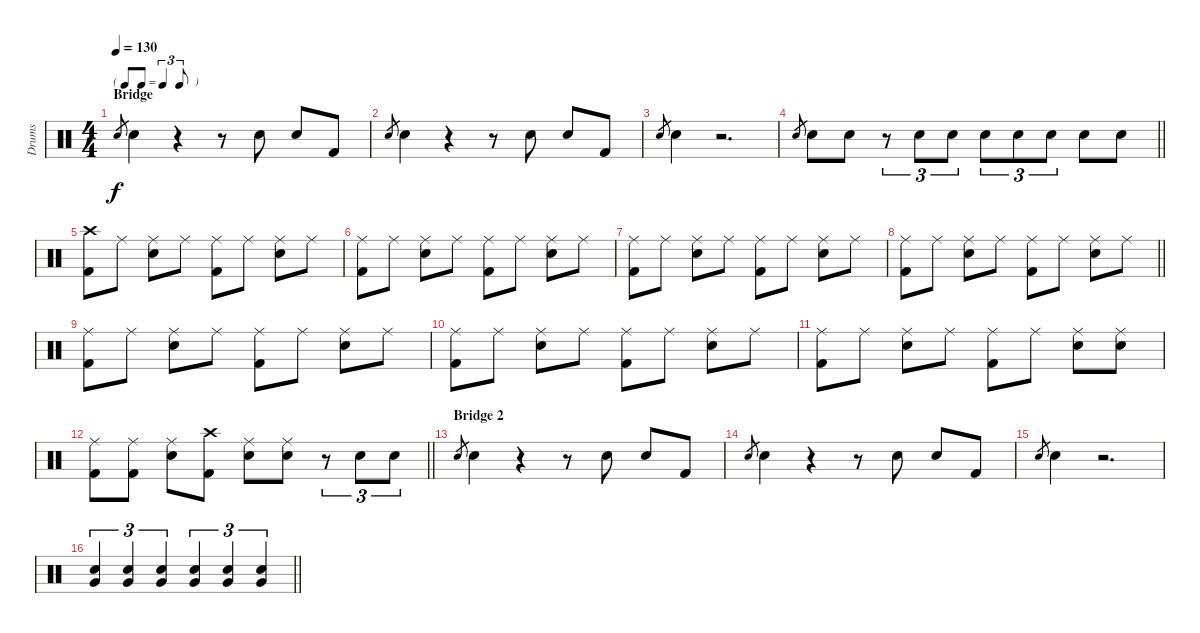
\track ("Drums" "Drums") {instrument percussion}
\staff {score}
\articulation defaults
\ts (4 4)
\tf triplet8th
\section ("" "Bridge")
\tempo 130
\clef neutral
\ks c "Snare (hit) 2".8{gr dy f} "Snare (hit) 2".4
r.4 r.8 "Snare (hit) 2".8 "Snare (hit) 2".8 "Kick (hit) 2".8 |
"Snare (hit) 2".8{gr} "Snare (hit) 2".4 r.4 r.8 "Snare (hit) 2".8 "Snare (hit) 2".8 "Kick (hit) 2".8 |
"Snare (hit) 2".8{gr} "Snare (hit) 2".4 r.2{d} |
\barLineRight lightlight "Snare (hit) 2".8{gr} "Snare (hit) 2".8 "Snare (hit) 2".8
r.8{tu (3 2)} "Snare (hit) 2".8{tu (3 2)} "Snare (hit) 2".8{tu (3 2)} "Snare (hit) 2".8{tu (3 2)} "Snare (hit) 2".8{tu (3 2)} "Snare (hit) 2".8{tu (3 2)} "Snare (hit) 2".8 "Snare (hit) 2".8 |
("Crash high (hit)" "Kick (hit) 2").8 "Ride (middle)".8 ("Ride (middle)" "Snare (hit) 2").8 "Ride (middle)".8 ("Ride (middle)" "Kick (hit) 2").8 "Ride (middle)".8 ("Ride (middle)" "Snare (hit) 2").8 "Ride (middle)".8 |
("Ride (middle)" "Kick (hit) 2").8 "Ride (middle)".8 ("Ride (middle)" "Snare (hit) 2").8 "Ride (middle)".8 ("Ride (middle)" "Kick (hit) 2").8 "Ride (middle)".8 ("Ride (middle)" "Snare (hit) 2").8 "Ride (middle)".8 |
("Ride (middle)" "Kick (hit) 2").8 "Ride (middle)".8 ("Ride (middle)" "Snare (hit) 2").8 "Ride (middle)".8 ("Ride (middle)" "Kick (hit) 2").8 "Ride (middle)".8 ("Ride (middle)" "Snare (hit) 2").8 "Ride (middle)".8 |
\barLineRight lightlight
("Ride (middle)" "Kick (hit) 2").8 "Ride (middle)".8 ("Ride (middle)" "Snare (hit) 2").8 "Ride (middle)".8 ("Ride (middle)" "Kick (hit) 2").8 "Ride (middle)".8 ("Ride (middle)" "Snare (hit) 2").8 "Ride (middle)".8 |
("Ride (middle)" "Kick (hit) 2").8 "Ride (middle)".8 ("Ride (middle)" "Snare (hit) 2").8 "Ride (middle)".8 ("Ride (middle)" "Kick (hit) 2").8 "Ride (middle)".8 ("Ride (middle)" "Snare (hit) 2").8 "Ride (middle)".8 |
("Ride (middle)" "Kick (hit) 2").8 "Ride (middle)".8 ("Ride (middle)" "Snare (hit) 2").8 "Ride (middle)".8 ("Ride (middle)" "Kick (hit) 2").8 "Ride (middle)".8 ("Ride (middle)" "Snare (hit) 2").8 "Ride (middle)".8 |
("Ride (middle)" "Kick (hit) 2").8 "Ride (middle)".8 ("Ride (middle)" "Snare (hit) 2").8 "Ride (middle)".8 ("Ride (middle)" "Kick (hit) 2").8 "Ride (middle)".8 ("Ride (middle)" "Snare (hit) 2").8 ("Ride (middle)" "Snare (hit) 2").8 |
\barLineRight lightlight
("Ride (middle)" "Kick (hit) 2").8 ("Ride (middle)" "Kick (hit) 2").8 ("Ride (middle)" "Snare (hit) 2").8 ("Crash high (hit)" "Kick (hit) 2").8 ("Ride (middle)" "Snare (hit) 2").8 ("Ride (middle)" "Snare (hit) 2").8 r.8{tu (3 2)} "Snare (hit) 2".8{tu (3 2)} "Snare (hit) 2".8{tu (3 2)} |
\section ("" "Bridge 2")
"Snare (hit) 2".8{gr} "Snare (hit) 2".4 r.4 r.8 "Snare (hit) 2".8 "Snare (hit) 2".8 "Kick (hit) 2".8 |
"Snare (hit) 2".8{gr} "Snare (hit) 2".4 r.4 r.8 "Snare (hit) 2".8 "Snare (hit) 2".8 "Kick (hit) 2".8 |
"Snare (hit) 2".8{gr} "Snare (hit) 2".4 r.2{d} |
\barLineRight lightlight
("Snare (hit) 2" "Very Low Tom (hit)").4{tu (3 2)} ("Snare (hit) 2" "Very Low Tom (hit)").4{tu (3 2)} ("Snare (hit) 2" "Very Low Tom (hit)").4{tu (3 2)} ("Snare (hit) 2" "Very Low Tom (hit)").4{tu (3 2)} ("Snare (hit) 2" "Very Low Tom (hit)").4{tu (3 2)} ("Snare (hit) 2" "Very Low Tom (hit)").4{tu (3 2)}
